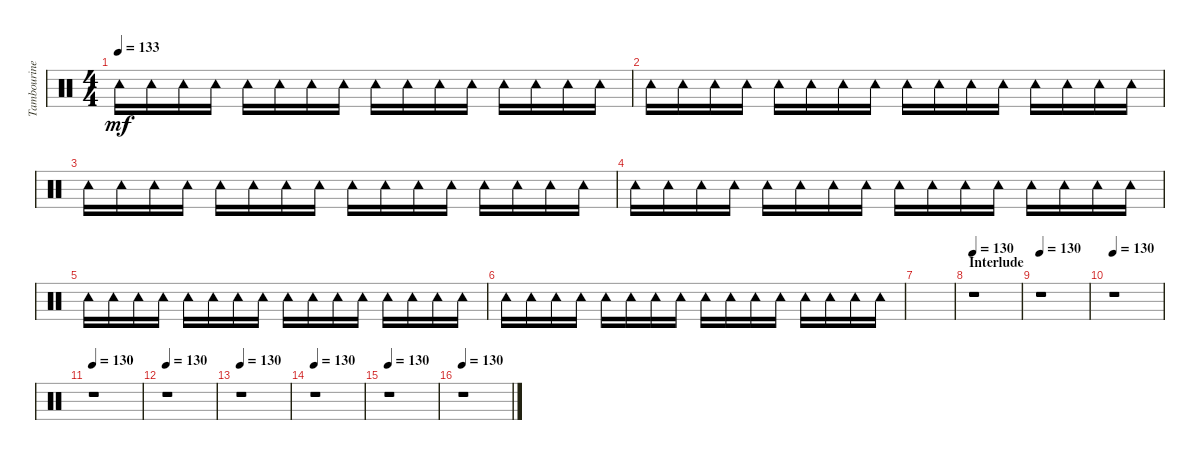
\track ("Tambourine" "Tambourine") {instrument percussion}
\staff {score}
\articulation defaults
\ts (4 4)
\tempo 133
\clef neutral
\ks c "Tambourine (hit)".16{dy mf} "Tambourine (hit)".16 "Tambourine (hit)".16 "Tambourine (hit)".16 "Tambourine (hit)".16 "Tambourine (hit)".16 "Tambourine (hit)".16 "Tambourine (hit)".16 "Tambourine (hit)".16 "Tambourine (hit)".16 "Tambourine (hit)".16 "Tambourine (hit)".16 "Tambourine (hit)".16 "Tambourine (hit)".16 "Tambourine (hit)".16 "Tambourine (hit)".16
|
"Tambourine (hit)".16 "Tambourine (hit)".16 "Tambourine (hit)".16 "Tambourine (hit)".16 "Tambourine (hit)".16 "Tambourine (hit)".16 "Tambourine (hit)".16 "Tambourine (hit)".16 "Tambourine (hit)".16 "Tambourine (hit)".16 "Tambourine (hit)".16 "Tambourine (hit)".16 "Tambourine (hit)".16 "Tambourine (hit)".16 "Tambourine (hit)".16 "Tambourine (hit)".16 |
"Tambourine (hit)".16 "Tambourine (hit)".16 "Tambourine (hit)".16 "Tambourine (hit)".16 "Tambourine (hit)".16 "Tambourine (hit)".16 "Tambourine (hit)".16 "Tambourine (hit)".16 "Tambourine (hit)".16 "Tambourine (hit)".16 "Tambourine (hit)".16 "Tambourine (hit)".16 "Tambourine (hit)".16 "Tambourine (hit)".16 "Tambourine (hit)".16 "Tambourine (hit)".16 |
"Tambourine (hit)".16 "Tambourine (hit)".16 "Tambourine (hit)".16 "Tambourine (hit)".16 "Tambourine (hit)".16 "Tambourine (hit)".16 "Tambourine (hit)".16 "Tambourine (hit)".16 "Tambourine (hit)".16 "Tambourine (hit)".16 "Tambourine (hit)".16 "Tambourine (hit)".16 "Tambourine (hit)".16 "Tambourine (hit)".16 "Tambourine (hit)".16 "Tambourine (hit)".16 |
"Tambourine (hit)".16 "Tambourine (hit)".16 "Tambourine (hit)".16 "Tambourine (hit)".16 "Tambourine (hit)".16 "Tambourine (hit)".16 "Tambourine (hit)".16 "Tambourine (hit)".16 "Tambourine (hit)".16 "Tambourine (hit)".16 "Tambourine (hit)".16 "Tambourine (hit)".16 "Tambourine (hit)".16 "Tambourine (hit)".16 "Tambourine (hit)".16 "Tambourine (hit)".16 |
"Tambourine (hit)".16 "Tambourine (hit)".16 "Tambourine (hit)".16 "Tambourine (hit)".16 "Tambourine (hit)".16 "Tambourine (hit)".16 "Tambourine (hit)".16 "Tambourine (hit)".16 "Tambourine (hit)".16 "Tambourine (hit)".16 "Tambourine (hit)".16 "Tambourine (hit)".16 "Tambourine (hit)".16 "Tambourine (hit)".16 "Tambourine (hit)".16 "Tambourine (hit)".16 |
|
\section ("" "Interlude")
\tempo 130
r.1 |
\tempo 130
r.1 |
\tempo 130
r.1 |
\tempo 130
r.1 |
\tempo 130
r.1 |
\tempo 130
r.1 |
\tempo 130
r.1 |
\tempo 130
r.1 |
\tempo 130
r.1
